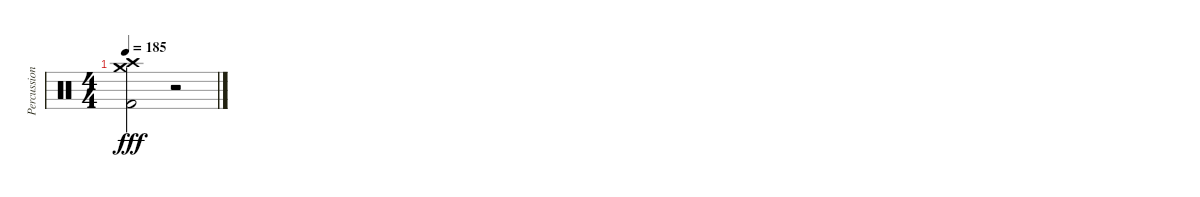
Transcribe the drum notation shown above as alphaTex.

\track ("Percussion" "Percussion") {instrument percussion}
\staff {score}
\articulation defaults
\ts (4 4)
\tempo 185
\clef neutral
\ks c
("Kick (hit) 2" "Crash medium (hit)" "Crash high (hit)").2{dy fff} r.2
